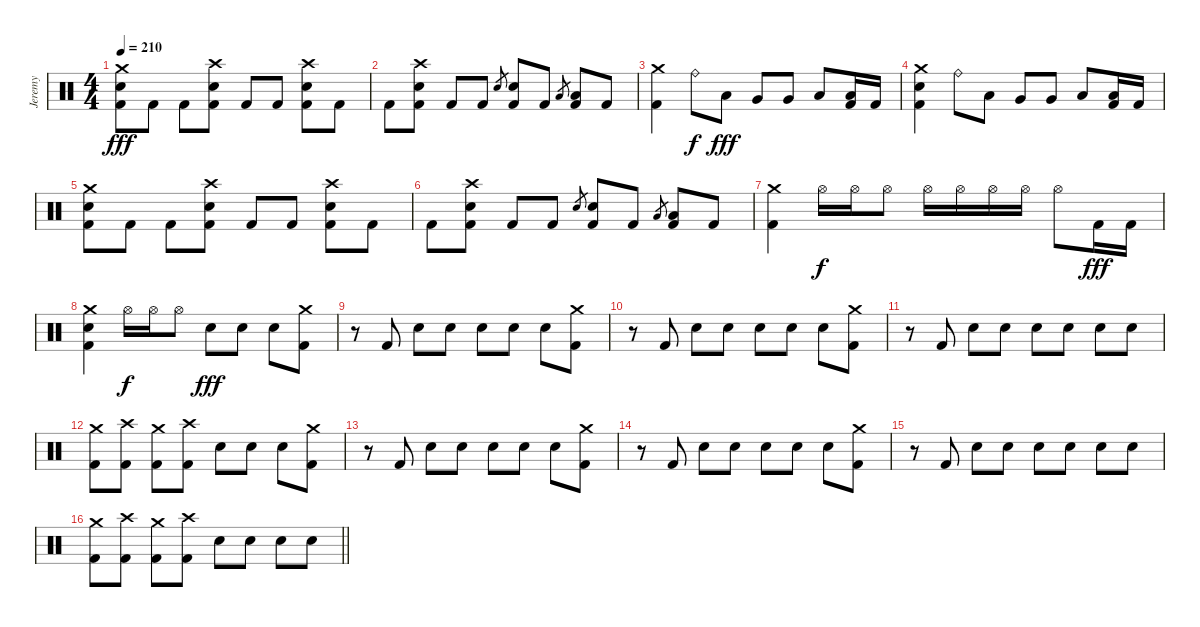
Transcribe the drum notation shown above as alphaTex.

\track ("Jeremy" "Jeremy") {instrument percussion}
\staff {score}
\articulation defaults
\ts (4 4)
\tempo 210
\clef neutral
\ks c
("Crash medium (hit)" "Electric Snare (hit)" "Kick (hit) 2").8{dy fff} "Kick (hit) 2".8 "Kick (hit) 2".8 ("Crash high (hit)" "Electric Snare (hit)" "Kick (hit) 2").8 "Kick (hit) 2".8 "Kick (hit) 2".8 ("Crash high (hit)" "Electric Snare (hit)" "Kick (hit) 2").8 "Kick (hit) 2".8 |
"Kick (hit) 2".8 ("Crash high (hit)" "Electric Snare (hit)" "Kick (hit) 2").8 "Kick (hit) 2".8 "Kick (hit) 2".8 "Electric Snare (hit)".8{gr} ("Electric Snare (hit)" "Kick (hit) 2").8 "Kick (hit) 2".8 "Low Tom (hit)".8{gr} ("Low Tom (hit)" "Kick (hit) 2").8 "Kick (hit) 2".8 |
("Crash medium (hit)" "Kick (hit) 2").4 "Ride (bell)".8{dy f} "Low Tom (hit)".8{dy fff} "Very Low Tom (hit)".8 "Very Low Tom (hit)".8 "Low Floor Tom (hit)".8 ("Low Floor Tom (hit)" "Kick (hit) 2").16 "Kick (hit) 2".16 |
("Crash medium (hit)" "Electric Snare (hit)" "Kick (hit) 2").4 "Ride (bell)".8 "Low Tom (hit)".8 "Very Low Tom (hit)".8 "Very Low Tom (hit)".8 "Low Floor Tom (hit)".8 ("Low Floor Tom (hit)" "Kick (hit) 2").16 "Kick (hit) 2".16 |
("Crash medium (hit)" "Electric Snare (hit)" "Kick (hit) 2").8 "Kick (hit) 2".8 "Kick (hit) 2".8 ("Crash high (hit)" "Electric Snare (hit)" "Kick (hit) 2").8 "Kick (hit) 2".8 "Kick (hit) 2".8 ("Crash high (hit)" "Electric Snare (hit)" "Kick (hit) 2").8 "Kick (hit) 2".8 |
"Kick (hit) 2".8 ("Crash high (hit)" "Electric Snare (hit)" "Kick (hit) 2").8 "Kick (hit) 2".8 "Kick (hit) 2".8 "Electric Snare (hit)".8{gr} ("Electric Snare (hit)" "Kick (hit) 2").8 "Kick (hit) 2".8 "Low Tom (hit)".8{gr} ("Low Tom (hit)" "Kick (hit) 2").8 "Kick (hit) 2".8 |
("Crash medium (hit)" "Kick (hit) 2").4 "Hi-Hat (open)".16{dy f} "Hi-Hat (open)".16 "Hi-Hat (open)".8 "Hi-Hat (open)".16 "Hi-Hat (open)".16 "Hi-Hat (open)".16 "Hi-Hat (open)".16 "Hi-Hat (open)".8 "Kick (hit) 2".16{dy fff} "Kick (hit) 2".16 |
("Crash medium (hit)" "Electric Snare (hit)" "Kick (hit) 2").4 "Hi-Hat (open)".16{dy f} "Hi-Hat (open)".16 "Hi-Hat (open)".8 "Electric Snare (hit)".8{dy fff} "Electric Snare (hit)".8 "Electric Snare (hit)".8 ("Crash medium (hit)" "Kick (hit) 2").8 |
r.8 "Kick (hit) 2".8 "Electric Snare (hit)".8 "Electric Snare (hit)".8 "Electric Snare (hit)".8 "Electric Snare (hit)".8 "Electric Snare (hit)".8 ("Crash medium (hit)" "Kick (hit) 2").8 |
r.8 "Kick (hit) 2".8 "Electric Snare (hit)".8 "Electric Snare (hit)".8 "Electric Snare (hit)".8 "Electric Snare (hit)".8 "Electric Snare (hit)".8 ("Crash medium (hit)" "Kick (hit) 2").8 |
r.8 "Kick (hit) 2".8 "Electric Snare (hit)".8 "Electric Snare (hit)".8 "Electric Snare (hit)".8 "Electric Snare (hit)".8 "Electric Snare (hit)".8 "Electric Snare (hit)".8 |
("Crash medium (hit)" "Kick (hit) 2").8 ("Crash high (hit)" "Kick (hit) 2").8 ("Crash medium (hit)" "Kick (hit) 2").8 ("Crash high (hit)" "Kick (hit) 2").8 "Electric Snare (hit)".8 "Electric Snare (hit)".8 "Electric Snare (hit)".8 ("Crash medium (hit)" "Kick (hit) 2").8 |
r.8 "Kick (hit) 2".8 "Electric Snare (hit)".8 "Electric Snare (hit)".8 "Electric Snare (hit)".8 "Electric Snare (hit)".8 "Electric Snare (hit)".8 ("Crash medium (hit)" "Kick (hit) 2").8 |
r.8 "Kick (hit) 2".8 "Electric Snare (hit)".8 "Electric Snare (hit)".8 "Electric Snare (hit)".8 "Electric Snare (hit)".8 "Electric Snare (hit)".8 ("Crash medium (hit)" "Kick (hit) 2").8 |
r.8 "Kick (hit) 2".8 "Electric Snare (hit)".8 "Electric Snare (hit)".8 "Electric Snare (hit)".8 "Electric Snare (hit)".8 "Electric Snare (hit)".8 "Electric Snare (hit)".8 |
\barLineRight lightlight
("Crash medium (hit)" "Kick (hit) 2").8 ("Crash high (hit)" "Kick (hit) 2").8 ("Crash medium (hit)" "Kick (hit) 2").8 ("Crash high (hit)" "Kick (hit) 2").8 "Electric Snare (hit)".8 "Electric Snare (hit)".8 "Electric Snare (hit)".8 "Electric Snare (hit)".8
